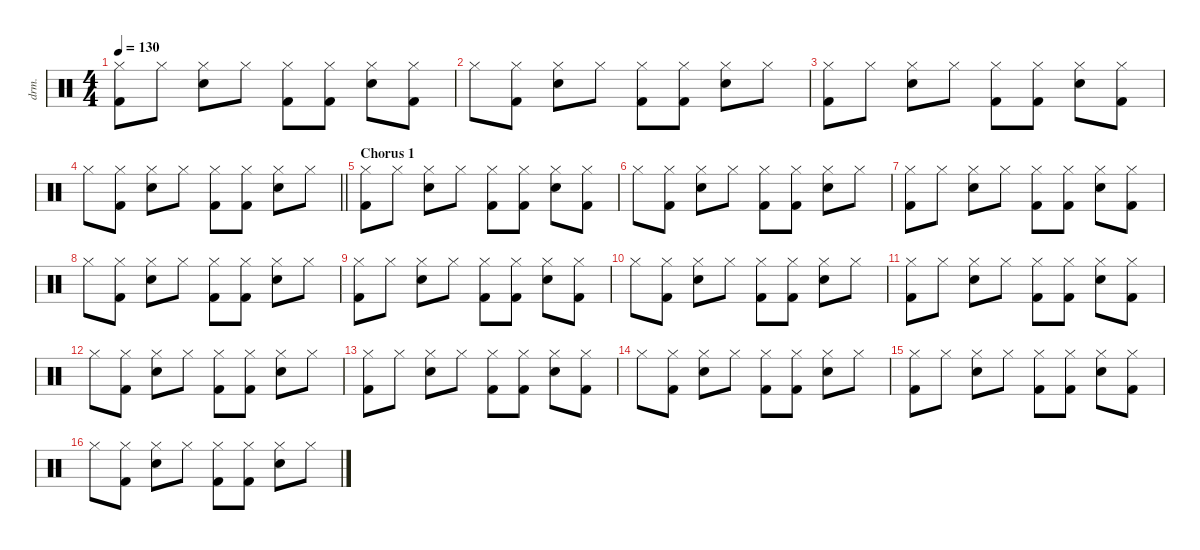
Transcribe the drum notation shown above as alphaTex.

\defaultSystemsLayout 4
\hideDynamics
\bracketExtendMode nobrackets
\otherSystemsTrackNameOrientation horizontal
\track ("Jimmy" "drm.") {instrument percussion}
\staff {score}
\articulation defaults
\ts (4 4)
\tempo 130
\clef neutral
\ks c
("Hi-Hat (closed)" "Kick (hit) 2").8{dy f beam Down} "Hi-Hat (closed)".8{beam Down} ("Hi-Hat (closed)" "Snare (hit) 2").8{beam Down} "Hi-Hat (closed)".8{beam Down} ("Hi-Hat (closed)" "Kick (hit) 2").8{beam Down} ("Hi-Hat (closed)" "Kick (hit) 2").8{beam Down} ("Hi-Hat (closed)" "Snare (hit) 2").8{beam Down} ("Hi-Hat (closed)" "Kick (hit) 2").8{beam Down} |
"Hi-Hat (closed)".8{beam Down} ("Hi-Hat (closed)" "Kick (hit) 2").8{beam Down} ("Hi-Hat (closed)" "Snare (hit) 2").8{beam Down} "Hi-Hat (closed)".8{beam Down} ("Hi-Hat (closed)" "Kick (hit) 2").8{beam Down} ("Hi-Hat (closed)" "Kick (hit) 2").8{beam Down} ("Hi-Hat (closed)" "Snare (hit) 2").8{beam Down} "Hi-Hat (closed)".8{beam Down} |
("Hi-Hat (closed)" "Kick (hit) 2").8{beam Down} "Hi-Hat (closed)".8{beam Down} ("Hi-Hat (closed)" "Snare (hit) 2").8{beam Down} "Hi-Hat (closed)".8{beam Down} ("Hi-Hat (closed)" "Kick (hit) 2").8{beam Down} ("Hi-Hat (closed)" "Kick (hit) 2").8{beam Down} ("Hi-Hat (closed)" "Snare (hit) 2").8{beam Down} ("Hi-Hat (closed)" "Kick (hit) 2").8{beam Down} |
\barLineRight lightlight "Hi-Hat (closed)".8{beam Down}
("Hi-Hat (closed)" "Kick (hit) 2").8{beam Down} ("Hi-Hat (closed)" "Snare (hit) 2").8{beam Down} "Hi-Hat (closed)".8{beam Down} ("Hi-Hat (closed)" "Kick (hit) 2").8{beam Down} ("Hi-Hat (closed)" "Kick (hit) 2").8{beam Down} ("Hi-Hat (closed)" "Snare (hit) 2").8{beam Down} "Hi-Hat (closed)".8{beam Down} |
\section ("" "Chorus 1")
("Hi-Hat (closed)" "Kick (hit) 2").8{beam Down} "Hi-Hat (closed)".8{beam Down} ("Hi-Hat (closed)" "Snare (hit) 2").8{beam Down} "Hi-Hat (closed)".8{beam Down} ("Hi-Hat (closed)" "Kick (hit) 2").8{beam Down} ("Hi-Hat (closed)" "Kick (hit) 2").8{beam Down} ("Hi-Hat (closed)" "Snare (hit) 2").8{beam Down} ("Hi-Hat (closed)" "Kick (hit) 2").8{beam Down} |
"Hi-Hat (closed)".8{beam Down} ("Hi-Hat (closed)" "Kick (hit) 2").8{beam Down} ("Hi-Hat (closed)" "Snare (hit) 2").8{beam Down} "Hi-Hat (closed)".8{beam Down} ("Hi-Hat (closed)" "Kick (hit) 2").8{beam Down} ("Hi-Hat (closed)" "Kick (hit) 2").8{beam Down} ("Hi-Hat (closed)" "Snare (hit) 2").8{beam Down} "Hi-Hat (closed)".8{beam Down} |
("Hi-Hat (closed)" "Kick (hit) 2").8{beam Down} "Hi-Hat (closed)".8{beam Down} ("Hi-Hat (closed)" "Snare (hit) 2").8{beam Down} "Hi-Hat (closed)".8{beam Down} ("Hi-Hat (closed)" "Kick (hit) 2").8{beam Down} ("Hi-Hat (closed)" "Kick (hit) 2").8{beam Down} ("Hi-Hat (closed)" "Snare (hit) 2").8{beam Down} ("Hi-Hat (closed)" "Kick (hit) 2").8{beam Down} |
"Hi-Hat (closed)".8{beam Down} ("Hi-Hat (closed)" "Kick (hit) 2").8{beam Down} ("Hi-Hat (closed)" "Snare (hit) 2").8{beam Down} "Hi-Hat (closed)".8{beam Down} ("Hi-Hat (closed)" "Kick (hit) 2").8{beam Down} ("Hi-Hat (closed)" "Kick (hit) 2").8{beam Down} ("Hi-Hat (closed)" "Snare (hit) 2").8{beam Down} "Hi-Hat (closed)".8{beam Down} |
("Hi-Hat (closed)" "Kick (hit) 2").8{beam Down} "Hi-Hat (closed)".8{beam Down} ("Hi-Hat (closed)" "Snare (hit) 2").8{beam Down} "Hi-Hat (closed)".8{beam Down} ("Hi-Hat (closed)" "Kick (hit) 2").8{beam Down} ("Hi-Hat (closed)" "Kick (hit) 2").8{beam Down} ("Hi-Hat (closed)" "Snare (hit) 2").8{beam Down} ("Hi-Hat (closed)" "Kick (hit) 2").8{beam Down} |
"Hi-Hat (closed)".8{beam Down} ("Hi-Hat (closed)" "Kick (hit) 2").8{beam Down} ("Hi-Hat (closed)" "Snare (hit) 2").8{beam Down} "Hi-Hat (closed)".8{beam Down} ("Hi-Hat (closed)" "Kick (hit) 2").8{beam Down} ("Hi-Hat (closed)" "Kick (hit) 2").8{beam Down} ("Hi-Hat (closed)" "Snare (hit) 2").8{beam Down} "Hi-Hat (closed)".8{beam Down} |
("Hi-Hat (closed)" "Kick (hit) 2").8{beam Down} "Hi-Hat (closed)".8{beam Down} ("Hi-Hat (closed)" "Snare (hit) 2").8{beam Down} "Hi-Hat (closed)".8{beam Down} ("Hi-Hat (closed)" "Kick (hit) 2").8{beam Down} ("Hi-Hat (closed)" "Kick (hit) 2").8{beam Down} ("Hi-Hat (closed)" "Snare (hit) 2").8{beam Down} ("Hi-Hat (closed)" "Kick (hit) 2").8{beam Down} |
"Hi-Hat (closed)".8{beam Down} ("Hi-Hat (closed)" "Kick (hit) 2").8{beam Down} ("Hi-Hat (closed)" "Snare (hit) 2").8{beam Down} "Hi-Hat (closed)".8{beam Down} ("Hi-Hat (closed)" "Kick (hit) 2").8{beam Down} ("Hi-Hat (closed)" "Kick (hit) 2").8{beam Down} ("Hi-Hat (closed)" "Snare (hit) 2").8{beam Down} "Hi-Hat (closed)".8{beam Down} |
("Hi-Hat (closed)" "Kick (hit) 2").8{beam Down} "Hi-Hat (closed)".8{beam Down} ("Hi-Hat (closed)" "Snare (hit) 2").8{beam Down} "Hi-Hat (closed)".8{beam Down} ("Hi-Hat (closed)" "Kick (hit) 2").8{beam Down} ("Hi-Hat (closed)" "Kick (hit) 2").8{beam Down} ("Hi-Hat (closed)" "Snare (hit) 2").8{beam Down} ("Hi-Hat (closed)" "Kick (hit) 2").8{beam Down} |
"Hi-Hat (closed)".8{beam Down} ("Hi-Hat (closed)" "Kick (hit) 2").8{beam Down} ("Hi-Hat (closed)" "Snare (hit) 2").8{beam Down} "Hi-Hat (closed)".8{beam Down} ("Hi-Hat (closed)" "Kick (hit) 2").8{beam Down} ("Hi-Hat (closed)" "Kick (hit) 2").8{beam Down} ("Hi-Hat (closed)" "Snare (hit) 2").8{beam Down} "Hi-Hat (closed)".8{beam Down} |
("Hi-Hat (closed)" "Kick (hit) 2").8{beam Down} "Hi-Hat (closed)".8{beam Down} ("Hi-Hat (closed)" "Snare (hit) 2").8{beam Down} "Hi-Hat (closed)".8{beam Down} ("Hi-Hat (closed)" "Kick (hit) 2").8{beam Down} ("Hi-Hat (closed)" "Kick (hit) 2").8{beam Down} ("Hi-Hat (closed)" "Snare (hit) 2").8{beam Down} ("Hi-Hat (closed)" "Kick (hit) 2").8{beam Down} |
"Hi-Hat (closed)".8{beam Down} ("Hi-Hat (closed)" "Kick (hit) 2").8{beam Down} ("Hi-Hat (closed)" "Snare (hit) 2").8{beam Down} "Hi-Hat (closed)".8{beam Down} ("Hi-Hat (closed)" "Kick (hit) 2").8{beam Down} ("Hi-Hat (closed)" "Kick (hit) 2").8{beam Down} ("Hi-Hat (closed)" "Snare (hit) 2").8{beam Down} "Hi-Hat (closed)".8{beam Down}
